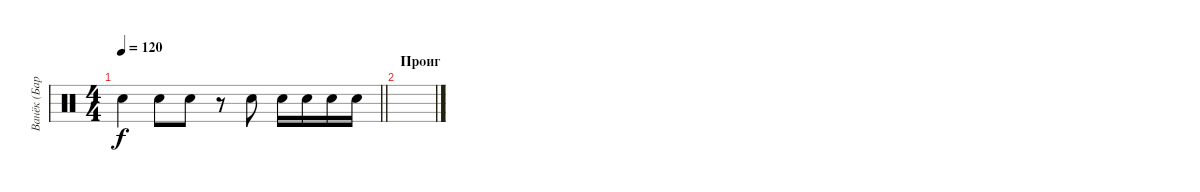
\track ("Ванёк (Барабанщик)" "Ванёк (Бар") {instrument percussion}
\staff {score}
\articulation defaults
\ts (4 4)
\tempo 120
\clef neutral
\barLineRight lightlight
\ks c "Electric Snare (hit)".4{dy f} "Electric Snare (hit)".8 "Electric Snare (hit)".8
r.8 "Electric Snare (hit)".8 "Electric Snare (hit)".16 "Electric Snare (hit)".16 "Electric Snare (hit)".16 "Electric Snare (hit)".16 |
\section ("" "Проиг")
